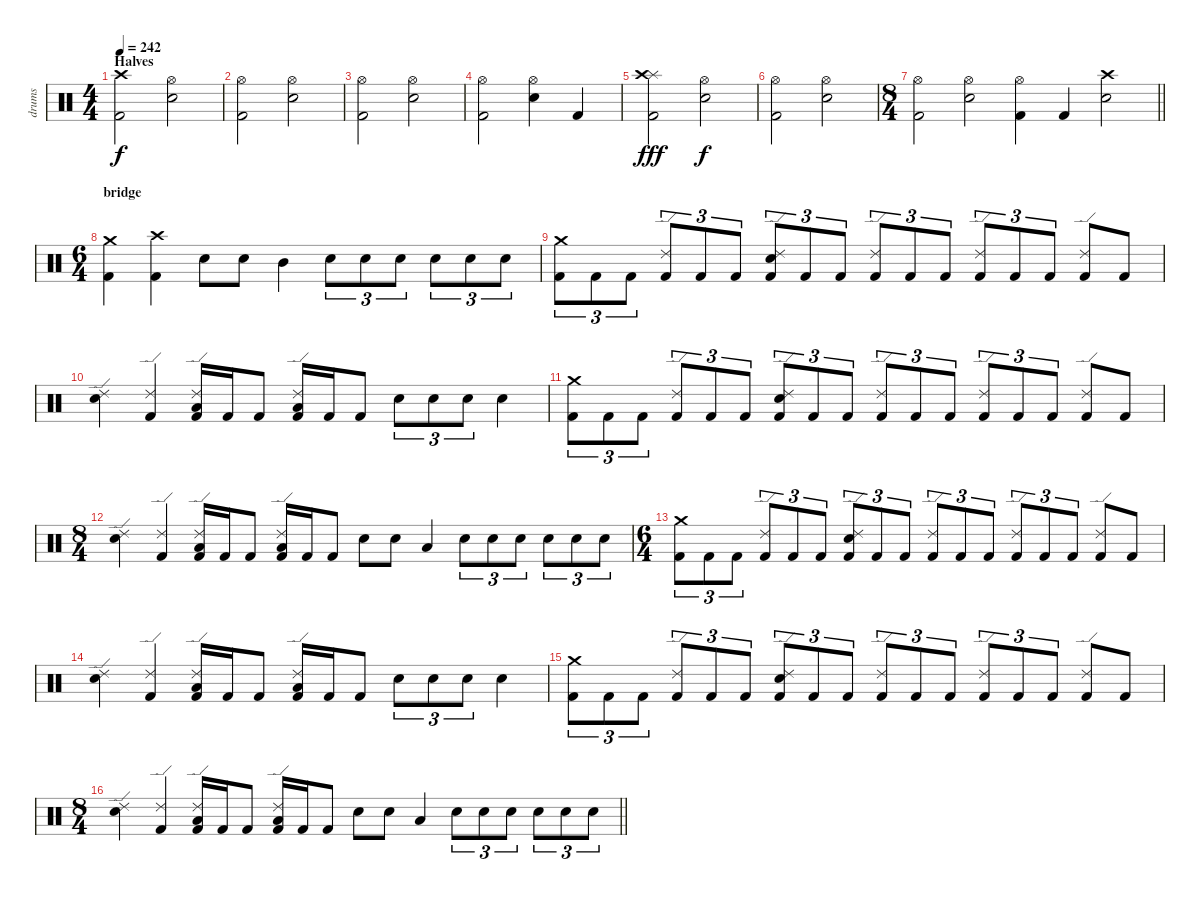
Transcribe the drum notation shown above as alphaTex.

\track ("drums" "drums") {instrument percussion}
\staff {score}
\articulation defaults
\ts (4 4)
\section ("" "Halves")
\tempo 242
\clef neutral
\ks c
("Crash high (hit)" "Kick (hit) 2").2{dy f} ("Hi-Hat (open)" "Electric Snare (hit)").2 |
("Hi-Hat (open)" "Kick (hit) 2").2 ("Hi-Hat (open)" "Electric Snare (hit)").2 |
("Hi-Hat (open)" "Kick (hit) 2").2 ("Hi-Hat (open)" "Electric Snare (hit)").2 |
("Hi-Hat (open)" "Kick (hit) 2").2 ("Hi-Hat (open)" "Electric Snare (hit)").4 "Kick (hit) 2".4 |
("Splash (hit)" "Crash high (hit)" "Kick (hit) 2").2{dy fff} ("Hi-Hat (open)" "Electric Snare (hit)").2{dy f} |
("Hi-Hat (open)" "Kick (hit) 2").2 ("Hi-Hat (open)" "Electric Snare (hit)").2 |
\ts (8 4)
\barLineRight lightlight
("Hi-Hat (open)" "Kick (hit) 2").2 ("Hi-Hat (open)" "Electric Snare (hit)").2 ("Hi-Hat (open)" "Kick (hit) 2").4 "Kick (hit) 2".4 ("Crash high (hit)" "Electric Snare (hit)").2 |
\ts (6 4)
\section ("" "bridge")
("Crash medium (hit)" "Kick (hit) 2").4 ("Crash high (hit)" "Kick (hit) 2").4 "Electric Snare (hit)".8 "Electric Snare (hit)".8 "Mid Tom (hit)".4 "Electric Snare (hit)".8{tu (3 2)} "Electric Snare (hit)".8{tu (3 2)} "Electric Snare (hit)".8{tu (3 2)} "Electric Snare (hit)".8{tu (3 2)} "Electric Snare (hit)".8{tu (3 2)} "Electric Snare (hit)".8{tu (3 2)} |
("Crash medium (hit)" "Kick (hit) 2").8{tu (3 2)} "Kick (hit) 2".8{tu (3 2)} "Kick (hit) 2".8{tu (3 2)} ("Ride (edge) 2" "Kick (hit) 2").8{tu (3 2)} "Kick (hit) 2".8{tu (3 2)} "Kick (hit) 2".8{tu (3 2)} ("Ride (edge) 2" "Electric Snare (hit)" "Kick (hit) 2").8{tu (3 2)} "Kick (hit) 2".8{tu (3 2)} "Kick (hit) 2".8{tu (3 2)} ("Ride (edge) 2" "Kick (hit) 2").8{tu (3 2)} "Kick (hit) 2".8{tu (3 2)} "Kick (hit) 2".8{tu (3 2)} ("Ride (edge) 2" "Kick (hit) 2").8{tu (3 2)} "Kick (hit) 2".8{tu (3 2)} "Kick (hit) 2".8{tu (3 2)} ("Ride (edge) 2" "Kick (hit) 2").8 "Kick (hit) 2".8 |
("Ride (edge) 2" "Electric Snare (hit)").4 ("Ride (edge) 2" "Kick (hit) 2").4 ("Ride (edge) 2" "Low Tom (hit)" "Kick (hit) 2").16 "Kick (hit) 2".16 "Kick (hit) 2".8 ("Ride (edge) 2" "Low Tom (hit)" "Kick (hit) 2").16 "Kick (hit) 2".16 "Kick (hit) 2".8 "Electric Snare (hit)".8{tu (3 2)} "Electric Snare (hit)".8{tu (3 2)} "Electric Snare (hit)".8{tu (3 2)} "Electric Snare (hit)".4 |
("Crash medium (hit)" "Kick (hit) 2").8{tu (3 2)} "Kick (hit) 2".8{tu (3 2)} "Kick (hit) 2".8{tu (3 2)} ("Ride (edge) 2" "Kick (hit) 2").8{tu (3 2)} "Kick (hit) 2".8{tu (3 2)} "Kick (hit) 2".8{tu (3 2)} ("Ride (edge) 2" "Electric Snare (hit)" "Kick (hit) 2").8{tu (3 2)} "Kick (hit) 2".8{tu (3 2)} "Kick (hit) 2".8{tu (3 2)} ("Ride (edge) 2" "Kick (hit) 2").8{tu (3 2)} "Kick (hit) 2".8{tu (3 2)} "Kick (hit) 2".8{tu (3 2)} ("Ride (edge) 2" "Kick (hit) 2").8{tu (3 2)} "Kick (hit) 2".8{tu (3 2)} "Kick (hit) 2".8{tu (3 2)} ("Ride (edge) 2" "Kick (hit) 2").8 "Kick (hit) 2".8 |
\ts (8 4)
("Ride (edge) 2" "Electric Snare (hit)").4 ("Ride (edge) 2" "Kick (hit) 2").4 ("Ride (edge) 2" "Low Tom (hit)" "Kick (hit) 2").16 "Kick (hit) 2".16 "Kick (hit) 2".8 ("Ride (edge) 2" "Low Tom (hit)" "Kick (hit) 2").16 "Kick (hit) 2".16 "Kick (hit) 2".8 "Electric Snare (hit)".8 "Electric Snare (hit)".8 "Low Tom (hit)".4 "Electric Snare (hit)".8{tu (3 2)} "Electric Snare (hit)".8{tu (3 2)} "Electric Snare (hit)".8{tu (3 2)} "Electric Snare (hit)".8{tu (3 2)} "Electric Snare (hit)".8{tu (3 2)} "Electric Snare (hit)".8{tu (3 2)} |
\ts (6 4)
("Crash medium (hit)" "Kick (hit) 2").8{tu (3 2)} "Kick (hit) 2".8{tu (3 2)} "Kick (hit) 2".8{tu (3 2)} ("Ride (edge) 2" "Kick (hit) 2").8{tu (3 2)} "Kick (hit) 2".8{tu (3 2)} "Kick (hit) 2".8{tu (3 2)} ("Ride (edge) 2" "Electric Snare (hit)" "Kick (hit) 2").8{tu (3 2)} "Kick (hit) 2".8{tu (3 2)} "Kick (hit) 2".8{tu (3 2)} ("Ride (edge) 2" "Kick (hit) 2").8{tu (3 2)} "Kick (hit) 2".8{tu (3 2)} "Kick (hit) 2".8{tu (3 2)} ("Ride (edge) 2" "Kick (hit) 2").8{tu (3 2)} "Kick (hit) 2".8{tu (3 2)} "Kick (hit) 2".8{tu (3 2)} ("Ride (edge) 2" "Kick (hit) 2").8 "Kick (hit) 2".8 |
("Ride (edge) 2" "Electric Snare (hit)").4 ("Ride (edge) 2" "Kick (hit) 2").4 ("Ride (edge) 2" "Low Tom (hit)" "Kick (hit) 2").16 "Kick (hit) 2".16 "Kick (hit) 2".8 ("Ride (edge) 2" "Low Tom (hit)" "Kick (hit) 2").16 "Kick (hit) 2".16 "Kick (hit) 2".8 "Electric Snare (hit)".8{tu (3 2)} "Electric Snare (hit)".8{tu (3 2)} "Electric Snare (hit)".8{tu (3 2)} "Electric Snare (hit)".4 |
("Crash medium (hit)" "Kick (hit) 2").8{tu (3 2)} "Kick (hit) 2".8{tu (3 2)} "Kick (hit) 2".8{tu (3 2)} ("Ride (edge) 2" "Kick (hit) 2").8{tu (3 2)} "Kick (hit) 2".8{tu (3 2)} "Kick (hit) 2".8{tu (3 2)} ("Ride (edge) 2" "Electric Snare (hit)" "Kick (hit) 2").8{tu (3 2)} "Kick (hit) 2".8{tu (3 2)} "Kick (hit) 2".8{tu (3 2)} ("Ride (edge) 2" "Kick (hit) 2").8{tu (3 2)} "Kick (hit) 2".8{tu (3 2)} "Kick (hit) 2".8{tu (3 2)} ("Ride (edge) 2" "Kick (hit) 2").8{tu (3 2)} "Kick (hit) 2".8{tu (3 2)} "Kick (hit) 2".8{tu (3 2)} ("Ride (edge) 2" "Kick (hit) 2").8 "Kick (hit) 2".8 |
\ts (8 4)
\barLineRight lightlight
("Ride (edge) 2" "Electric Snare (hit)").4 ("Ride (edge) 2" "Kick (hit) 2").4 ("Ride (edge) 2" "Low Tom (hit)" "Kick (hit) 2").16 "Kick (hit) 2".16 "Kick (hit) 2".8 ("Ride (edge) 2" "Low Tom (hit)" "Kick (hit) 2").16 "Kick (hit) 2".16 "Kick (hit) 2".8 "Electric Snare (hit)".8 "Electric Snare (hit)".8 "Low Tom (hit)".4 "Electric Snare (hit)".8{tu (3 2)} "Electric Snare (hit)".8{tu (3 2)} "Electric Snare (hit)".8{tu (3 2)} "Electric Snare (hit)".8{tu (3 2)} "Electric Snare (hit)".8{tu (3 2)} "Electric Snare (hit)".8{tu (3 2)}
